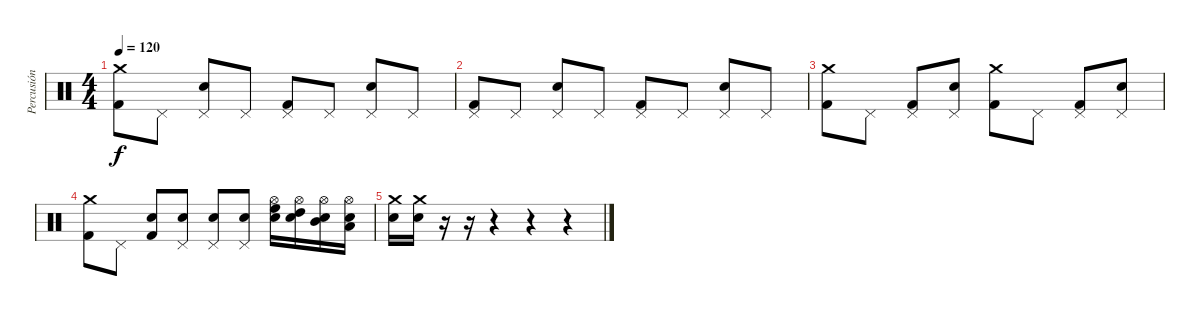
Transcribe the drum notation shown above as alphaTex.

\track ("Percusión" "Percusión") {instrument percussion}
\staff {score}
\articulation defaults
\ts (4 4)
\tempo 120
\clef neutral
\ks c
("Crash medium (hit)" "Kick (hit) 2").8{dy f} "Pedal Hi-Hat (hit)".8 ("Pedal Hi-Hat (hit)" "Electric Snare (hit)").8 "Pedal Hi-Hat (hit)".8 ("Pedal Hi-Hat (hit)" "Kick (hit) 2").8 "Pedal Hi-Hat (hit)".8 ("Pedal Hi-Hat (hit)" "Electric Snare (hit)").8 "Pedal Hi-Hat (hit)".8 |
("Pedal Hi-Hat (hit)" "Kick (hit) 2").8 "Pedal Hi-Hat (hit)".8 ("Pedal Hi-Hat (hit)" "Electric Snare (hit)").8 "Pedal Hi-Hat (hit)".8 ("Pedal Hi-Hat (hit)" "Kick (hit) 2").8 "Pedal Hi-Hat (hit)".8 ("Pedal Hi-Hat (hit)" "Electric Snare (hit)").8 "Pedal Hi-Hat (hit)".8 |
("Crash medium (hit)" "Kick (hit) 2").8 "Pedal Hi-Hat (hit)".8 ("Pedal Hi-Hat (hit)" "Kick (hit) 2").8 ("Pedal Hi-Hat (hit)" "Electric Snare (hit)").8 ("Crash medium (hit)" "Kick (hit) 2").8 "Pedal Hi-Hat (hit)".8 ("Pedal Hi-Hat (hit)" "Kick (hit) 2").8 ("Pedal Hi-Hat (hit)" "Electric Snare (hit)").8 |
("Crash medium (hit)" "Kick (hit) 2").8 "Pedal Hi-Hat (hit)".8 ("Electric Snare (hit)" "Kick (hit) 2").8 ("Pedal Hi-Hat (hit)" "Electric Snare (hit)").8 ("Pedal Hi-Hat (hit)" "Electric Snare (hit)").8 ("Pedal Hi-Hat (hit)" "Electric Snare (hit)").8 ("Hi-Hat (open)" "High Floor Tom (hit)" "Electric Snare (hit)").16 ("Hi-Hat (open)" "High Tom (hit)" "Electric Snare (hit)").16 ("Hi-Hat (open)" "Mid Tom (hit)" "Electric Snare (hit)").16 ("Hi-Hat (open)" "Low Tom (hit)" "Electric Snare (hit)").16 |
("Crash medium (hit)" "Electric Snare (hit)").16 ("Crash medium (hit)" "Electric Snare (hit)").16 r.16 r.16 r.4 r.4 r.4
